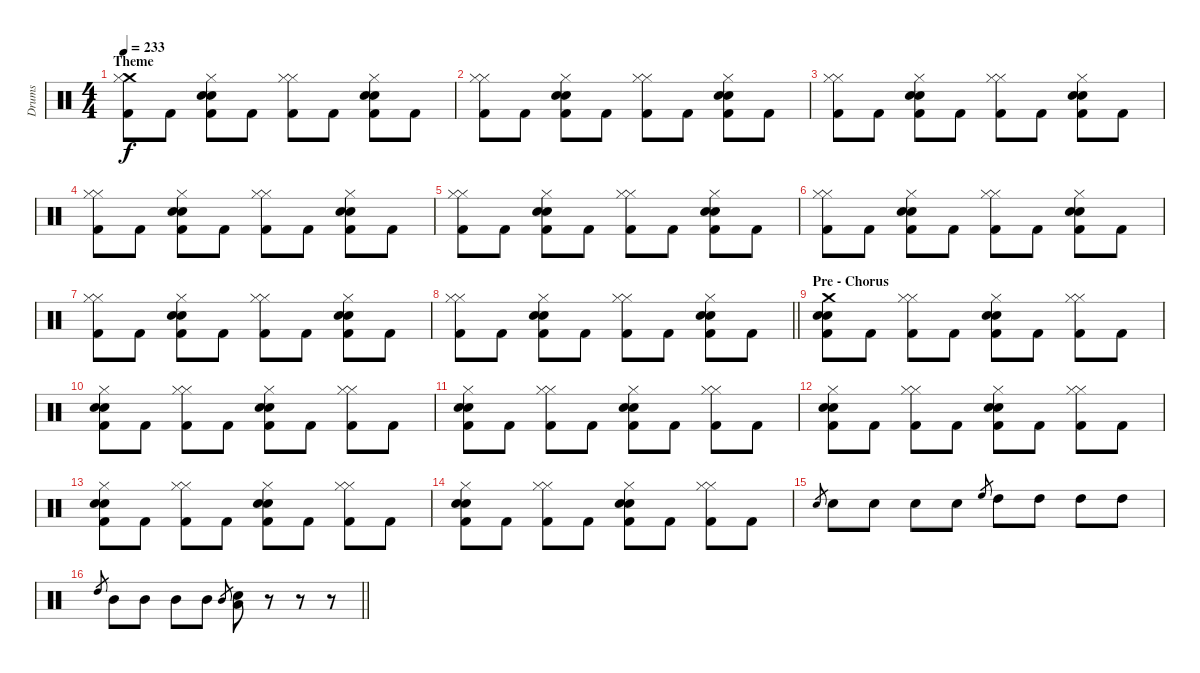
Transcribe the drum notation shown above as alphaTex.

\track ("Drums" "Drums") {instrument percussion}
\staff {score}
\articulation defaults
\ts (4 4)
\section ("" "Theme")
\tempo 233
\clef neutral
\ks c
("Crash medium (hit)" "Hi-Hat (closed)" "Kick (hit) 2").8{dy f} "Kick (hit) 2".8 ("Hi-Hat (closed)" "Snare (hit) 2" "Electric Snare (hit)" "Kick (hit) 2").8 "Kick (hit) 2".8 ("Hi-Hat (closed)" "Hi-Hat (closed)" "Kick (hit) 2").8 "Kick (hit) 2".8 ("Hi-Hat (closed)" "Snare (hit) 2" "Electric Snare (hit)" "Kick (hit) 2").8 "Kick (hit) 2".8 |
("Hi-Hat (closed)" "Hi-Hat (closed)" "Kick (hit) 2").8 "Kick (hit) 2".8 ("Hi-Hat (closed)" "Snare (hit) 2" "Electric Snare (hit)" "Kick (hit) 2").8 "Kick (hit) 2".8 ("Hi-Hat (closed)" "Hi-Hat (closed)" "Kick (hit) 2").8 "Kick (hit) 2".8 ("Hi-Hat (closed)" "Snare (hit) 2" "Electric Snare (hit)" "Kick (hit) 2").8 "Kick (hit) 2".8 |
("Hi-Hat (closed)" "Hi-Hat (closed)" "Kick (hit) 2").8 "Kick (hit) 2".8 ("Hi-Hat (closed)" "Snare (hit) 2" "Electric Snare (hit)" "Kick (hit) 2").8 "Kick (hit) 2".8 ("Hi-Hat (closed)" "Hi-Hat (closed)" "Kick (hit) 2").8 "Kick (hit) 2".8 ("Hi-Hat (closed)" "Snare (hit) 2" "Electric Snare (hit)" "Kick (hit) 2").8 "Kick (hit) 2".8 |
("Hi-Hat (closed)" "Hi-Hat (closed)" "Kick (hit) 2").8 "Kick (hit) 2".8 ("Hi-Hat (closed)" "Snare (hit) 2" "Electric Snare (hit)" "Kick (hit) 2").8 "Kick (hit) 2".8 ("Hi-Hat (closed)" "Hi-Hat (closed)" "Kick (hit) 2").8 "Kick (hit) 2".8 ("Hi-Hat (closed)" "Snare (hit) 2" "Electric Snare (hit)" "Kick (hit) 2").8 "Kick (hit) 2".8 |
("Hi-Hat (closed)" "Hi-Hat (closed)" "Kick (hit) 2").8 "Kick (hit) 2".8 ("Hi-Hat (closed)" "Snare (hit) 2" "Electric Snare (hit)" "Kick (hit) 2").8 "Kick (hit) 2".8 ("Hi-Hat (closed)" "Hi-Hat (closed)" "Kick (hit) 2").8 "Kick (hit) 2".8 ("Hi-Hat (closed)" "Snare (hit) 2" "Electric Snare (hit)" "Kick (hit) 2").8 "Kick (hit) 2".8 |
("Hi-Hat (closed)" "Hi-Hat (closed)" "Kick (hit) 2").8 "Kick (hit) 2".8 ("Hi-Hat (closed)" "Snare (hit) 2" "Electric Snare (hit)" "Kick (hit) 2").8 "Kick (hit) 2".8 ("Hi-Hat (closed)" "Hi-Hat (closed)" "Kick (hit) 2").8 "Kick (hit) 2".8 ("Hi-Hat (closed)" "Snare (hit) 2" "Electric Snare (hit)" "Kick (hit) 2").8 "Kick (hit) 2".8 |
("Hi-Hat (closed)" "Hi-Hat (closed)" "Kick (hit) 2").8 "Kick (hit) 2".8 ("Hi-Hat (closed)" "Snare (hit) 2" "Electric Snare (hit)" "Kick (hit) 2").8 "Kick (hit) 2".8 ("Hi-Hat (closed)" "Hi-Hat (closed)" "Kick (hit) 2").8 "Kick (hit) 2".8 ("Hi-Hat (closed)" "Snare (hit) 2" "Electric Snare (hit)" "Kick (hit) 2").8 "Kick (hit) 2".8 |
\barLineRight lightlight
("Hi-Hat (closed)" "Hi-Hat (closed)" "Kick (hit) 2").8 "Kick (hit) 2".8 ("Hi-Hat (closed)" "Snare (hit) 2" "Electric Snare (hit)" "Kick (hit) 2").8 "Kick (hit) 2".8 ("Hi-Hat (closed)" "Hi-Hat (closed)" "Kick (hit) 2").8 "Kick (hit) 2".8 ("Hi-Hat (closed)" "Snare (hit) 2" "Electric Snare (hit)" "Kick (hit) 2").8 "Kick (hit) 2".8 |
\section ("" "Pre - Chorus")
("Crash medium (hit)" "Snare (hit) 2" "Electric Snare (hit)" "Kick (hit) 2").8 "Kick (hit) 2".8 ("Hi-Hat (closed)" "Hi-Hat (closed)" "Kick (hit) 2").8 "Kick (hit) 2".8 ("Hi-Hat (closed)" "Snare (hit) 2" "Electric Snare (hit)" "Kick (hit) 2").8 "Kick (hit) 2".8 ("Hi-Hat (closed)" "Hi-Hat (closed)" "Kick (hit) 2").8 "Kick (hit) 2".8 |
("Hi-Hat (closed)" "Snare (hit) 2" "Electric Snare (hit)" "Kick (hit) 2").8 "Kick (hit) 2".8 ("Hi-Hat (closed)" "Hi-Hat (closed)" "Kick (hit) 2").8 "Kick (hit) 2".8 ("Hi-Hat (closed)" "Snare (hit) 2" "Electric Snare (hit)" "Kick (hit) 2").8 "Kick (hit) 2".8 ("Hi-Hat (closed)" "Hi-Hat (closed)" "Kick (hit) 2").8 "Kick (hit) 2".8 |
("Hi-Hat (closed)" "Snare (hit) 2" "Electric Snare (hit)" "Kick (hit) 2").8 "Kick (hit) 2".8 ("Hi-Hat (closed)" "Hi-Hat (closed)" "Kick (hit) 2").8 "Kick (hit) 2".8 ("Hi-Hat (closed)" "Snare (hit) 2" "Electric Snare (hit)" "Kick (hit) 2").8 "Kick (hit) 2".8 ("Hi-Hat (closed)" "Hi-Hat (closed)" "Kick (hit) 2").8 "Kick (hit) 2".8 |
("Hi-Hat (closed)" "Snare (hit) 2" "Electric Snare (hit)" "Kick (hit) 2").8 "Kick (hit) 2".8 ("Hi-Hat (closed)" "Hi-Hat (closed)" "Kick (hit) 2").8 "Kick (hit) 2".8 ("Hi-Hat (closed)" "Snare (hit) 2" "Electric Snare (hit)" "Kick (hit) 2").8 "Kick (hit) 2".8 ("Hi-Hat (closed)" "Hi-Hat (closed)" "Kick (hit) 2").8 "Kick (hit) 2".8 |
("Hi-Hat (closed)" "Snare (hit) 2" "Electric Snare (hit)" "Kick (hit) 2").8 "Kick (hit) 2".8 ("Hi-Hat (closed)" "Hi-Hat (closed)" "Kick (hit) 2").8 "Kick (hit) 2".8 ("Hi-Hat (closed)" "Snare (hit) 2" "Electric Snare (hit)" "Kick (hit) 2").8 "Kick (hit) 2".8 ("Hi-Hat (closed)" "Hi-Hat (closed)" "Kick (hit) 2").8 "Kick (hit) 2".8 |
("Hi-Hat (closed)" "Snare (hit) 2" "Electric Snare (hit)" "Kick (hit) 2").8 "Kick (hit) 2".8 ("Hi-Hat (closed)" "Hi-Hat (closed)" "Kick (hit) 2").8 "Kick (hit) 2".8 ("Hi-Hat (closed)" "Snare (hit) 2" "Electric Snare (hit)" "Kick (hit) 2").8 "Kick (hit) 2".8 ("Hi-Hat (closed)" "Hi-Hat (closed)" "Kick (hit) 2").8 "Kick (hit) 2".8 |
"Snare (hit) 2".8{gr} "Snare (hit) 2".8 "Snare (hit) 2".8 "Snare (hit) 2".8 "Snare (hit) 2".8 "High Floor Tom (hit)".8{gr} "High Tom (hit)".8 "High Tom (hit)".8 "High Tom (hit)".8 "High Tom (hit)".8 |
\barLineRight lightlight "High Tom (hit)".8{gr} "Mid Tom (hit)".8 "Mid Tom (hit)".8 "Mid Tom (hit)".8 "Mid Tom (hit)".8 "Mid Tom (hit)".8{gr}
("Snare (hit) 2" "Low Tom (hit)").8 r.8 r.8 r.8
